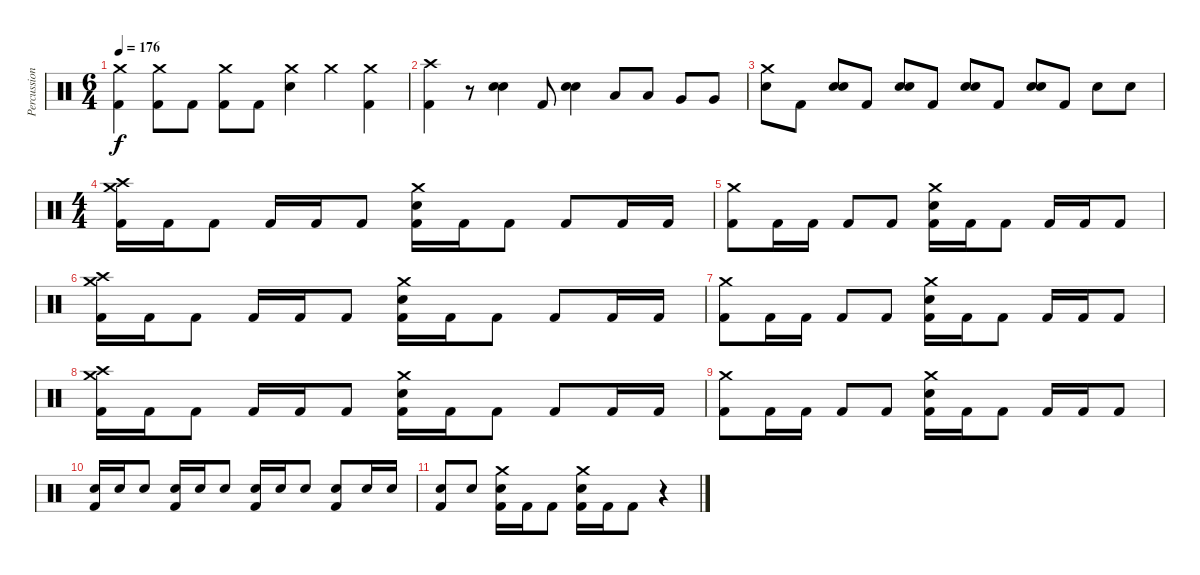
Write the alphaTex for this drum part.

\track ("Percussion" "Percussion") {instrument percussion}
\staff {score}
\articulation defaults
\ts (6 4)
\tempo 176
\clef neutral
\ks c
("Crash medium (hit)" "Kick (hit) 2").4{dy f} ("Crash medium (hit)" "Kick (hit) 2").8 "Kick (hit) 2".8 ("Crash medium (hit)" "Kick (hit) 2").8 "Kick (hit) 2".8 ("Crash medium (hit)" "Snare (hit) 2").4 "Crash medium (hit)".4 ("Crash medium (hit)" "Kick (hit) 2").4 |
("Crash high (hit)" "Kick (hit) 2").4 r.8 ("Snare (hit) 2" "Snare (hit) 2").4 "Kick (hit) 2".8 ("Snare (hit) 2" "Snare (hit) 2").4 "Low Tom (hit)".8 "Low Tom (hit)".8 "Very Low Tom (hit)".8 "Very Low Tom (hit)".8 |
("Crash medium (hit)" "Snare (hit) 2").8 "Kick (hit) 2".8 ("Snare (hit) 2" "Snare (hit) 2").8 "Kick (hit) 2".8 ("Snare (hit) 2" "Snare (hit) 2").8 "Kick (hit) 2".8 ("Snare (hit) 2" "Snare (hit) 2").8 "Kick (hit) 2".8 ("Snare (hit) 2" "Snare (hit) 2").8 "Kick (hit) 2".8 "Snare (hit) 2".8 "Snare (hit) 2".8 |
\ts (4 4)
("Crash high (hit)" "Crash medium (hit)" "Kick (hit) 2").16 "Kick (hit) 2".16 "Kick (hit) 2".8 "Kick (hit) 2".16 "Kick (hit) 2".16 "Kick (hit) 2".8 ("Crash medium (hit)" "Snare (hit) 2" "Kick (hit) 2").16 "Kick (hit) 2".16 "Kick (hit) 2".8 "Kick (hit) 2".8 "Kick (hit) 2".16 "Kick (hit) 2".16 |
("Crash medium (hit)" "Kick (hit) 2").8 "Kick (hit) 2".16 "Kick (hit) 2".16 "Kick (hit) 2".8 "Kick (hit) 2".8 ("Crash medium (hit)" "Snare (hit) 2" "Kick (hit) 2").16 "Kick (hit) 2".16 "Kick (hit) 2".8 "Kick (hit) 2".16 "Kick (hit) 2".16 "Kick (hit) 2".8 |
("Crash high (hit)" "Crash medium (hit)" "Kick (hit) 2").16 "Kick (hit) 2".16 "Kick (hit) 2".8 "Kick (hit) 2".16 "Kick (hit) 2".16 "Kick (hit) 2".8 ("Crash medium (hit)" "Snare (hit) 2" "Kick (hit) 2").16 "Kick (hit) 2".16 "Kick (hit) 2".8 "Kick (hit) 2".8 "Kick (hit) 2".16 "Kick (hit) 2".16 |
("Crash medium (hit)" "Kick (hit) 2").8 "Kick (hit) 2".16 "Kick (hit) 2".16 "Kick (hit) 2".8 "Kick (hit) 2".8 ("Crash medium (hit)" "Snare (hit) 2" "Kick (hit) 2").16 "Kick (hit) 2".16 "Kick (hit) 2".8 "Kick (hit) 2".16 "Kick (hit) 2".16 "Kick (hit) 2".8 |
("Crash high (hit)" "Crash medium (hit)" "Kick (hit) 2").16 "Kick (hit) 2".16 "Kick (hit) 2".8 "Kick (hit) 2".16 "Kick (hit) 2".16 "Kick (hit) 2".8 ("Crash medium (hit)" "Snare (hit) 2" "Kick (hit) 2").16 "Kick (hit) 2".16 "Kick (hit) 2".8 "Kick (hit) 2".8 "Kick (hit) 2".16 "Kick (hit) 2".16 |
("Crash medium (hit)" "Kick (hit) 2").8 "Kick (hit) 2".16 "Kick (hit) 2".16 "Kick (hit) 2".8 "Kick (hit) 2".8 ("Crash medium (hit)" "Snare (hit) 2" "Kick (hit) 2").16 "Kick (hit) 2".16 "Kick (hit) 2".8 "Kick (hit) 2".16 "Kick (hit) 2".16 "Kick (hit) 2".8 |
("Snare (hit) 2" "Kick (hit) 2").16 "Snare (hit) 2".16 "Snare (hit) 2".8 ("Snare (hit) 2" "Kick (hit) 2").16 "Snare (hit) 2".16 "Snare (hit) 2".8 ("Snare (hit) 2" "Kick (hit) 2").16 "Snare (hit) 2".16 "Snare (hit) 2".8 ("Snare (hit) 2" "Kick (hit) 2").8 "Snare (hit) 2".16 "Snare (hit) 2".16 |
("Snare (hit) 2" "Kick (hit) 2").8 "Snare (hit) 2".8 ("Crash medium (hit)" "Snare (hit) 2" "Kick (hit) 2").16 "Kick (hit) 2".16 "Kick (hit) 2".8 ("Crash medium (hit)" "Snare (hit) 2" "Kick (hit) 2").16 "Kick (hit) 2".16 "Kick (hit) 2".8 r.4
